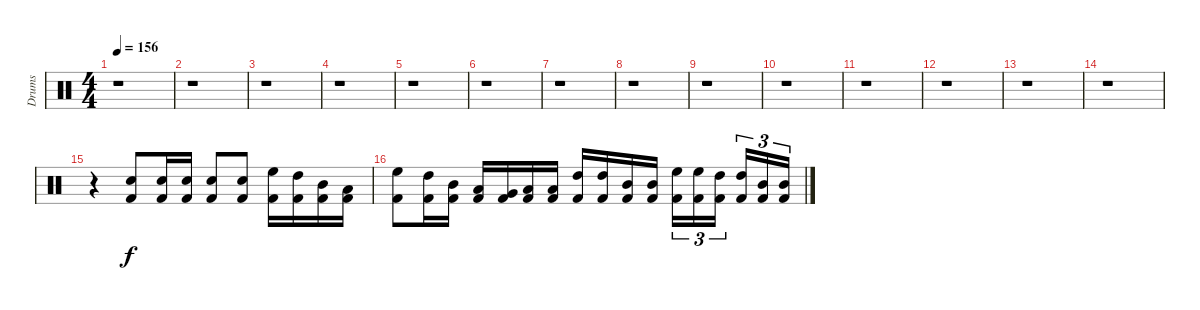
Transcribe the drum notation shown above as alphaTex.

\track ("Drums" "Drums") {instrument percussion}
\staff {score}
\articulation defaults
\ts (4 4)
\section ("" "")
\tempo 156
\clef neutral
\ks c
r.1{dy f} |
r.1 |
r.1 |
r.1 |
r.1 |
r.1 |
r.1 |
r.1 |
r.1 |
r.1 |
r.1 |
r.1 |
r.1 |
r.1 |
r.4 ("Kick (hit) 2" "Snare (hit) 2").8 ("Kick (hit) 2" "Snare (hit) 2").16 ("Kick (hit) 2" "Snare (hit) 2").16 ("Kick (hit) 2" "Snare (hit) 2").8 ("Kick (hit) 2" "Snare (hit) 2").8 ("Kick (hit) 2" "High Floor Tom (hit)").16 ("Kick (hit) 2" "High Tom (hit)").16 ("Kick (hit) 2" "Mid Tom (hit)").16 ("Kick (hit) 2" "Low Tom (hit)").16 |
("Kick (hit) 2" "High Floor Tom (hit)").8 ("Kick (hit) 2" "High Tom (hit)").16 ("Kick (hit) 2" "Mid Tom (hit)").16 ("Kick (hit) 2" "Low Tom (hit)").16 ("Kick (hit) 2" "Very Low Tom (hit)").16 ("Kick (hit) 2" "Low Floor Tom (hit)").16 ("Kick (hit) 2" "Low Floor Tom (hit)").16 ("Kick (hit) 2" "High Tom (hit)").16 ("Kick (hit) 2" "High Tom (hit)").16 ("Kick (hit) 2" "Mid Tom (hit)").16 ("Kick (hit) 2" "Mid Tom (hit)").16 ("Kick (hit) 2" "High Floor Tom (hit)").16{tu (3 2)} ("Kick (hit) 2" "High Floor Tom (hit)").16{tu (3 2)} ("Kick (hit) 2" "High Tom (hit)").16{tu (3 2)} ("Kick (hit) 2" "High Tom (hit)").16{tu (3 2)} ("Kick (hit) 2" "Mid Tom (hit)").16{tu (3 2)} ("Kick (hit) 2" "Mid Tom (hit)").16{tu (3 2)}
